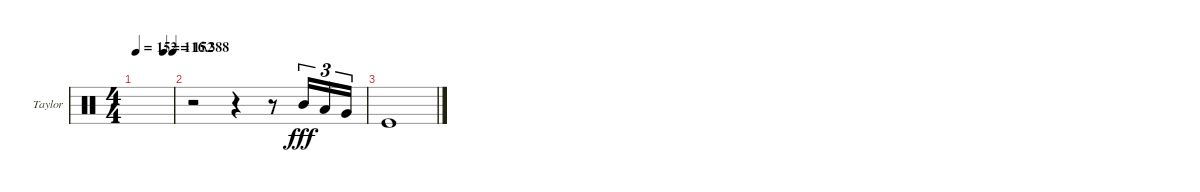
\defaultSystemsLayout 4
\bracketExtendMode nobrackets
\firstSystemTrackNameOrientation horizontal
\otherSystemsTrackNameOrientation horizontal
\track ("Drums (Taylor Hawkins)" "Taylor") {instrument percussion}
\staff {score}
\articulation defaults
\ts (4 4)
\tempo 152
\tempo (116.388 0.75)
\tempo (152 1)
\clef neutral
\ks c
|
r.2 r.4 r.8 "Mid Tom (hit)".16{tu (3 2) dy fff} "Low Tom (hit)".16{tu (3 2)} "Very Low Tom (hit)".16{tu (3 2)} |
"Kick (hit)".1
